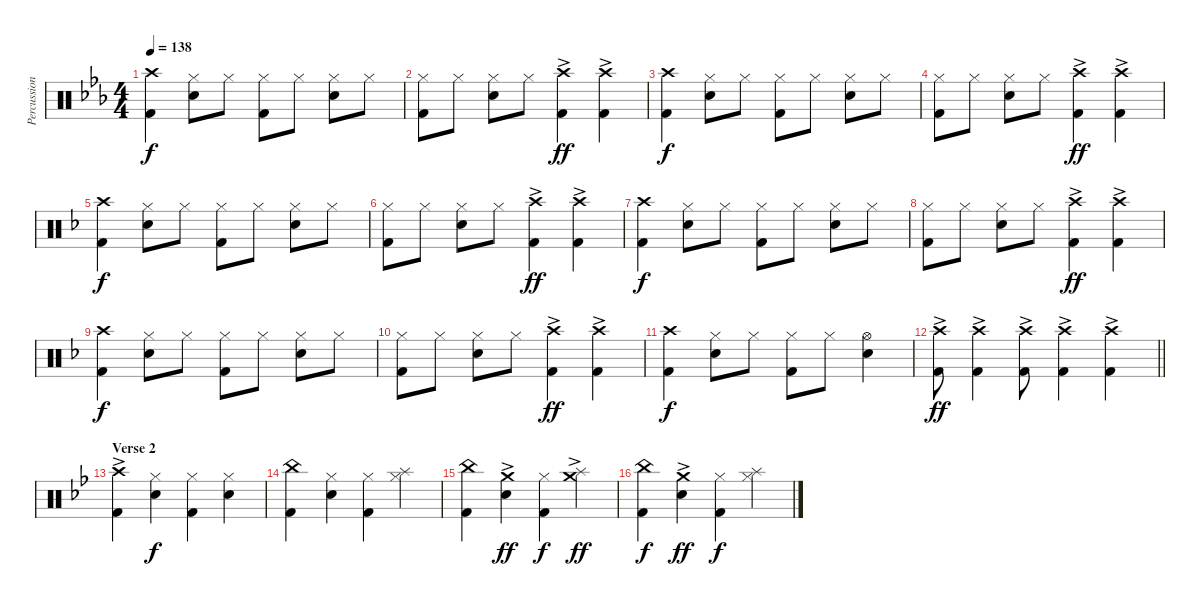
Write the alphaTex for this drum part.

\track ("Percussion" "Percussion") {instrument percussion}
\staff {score}
\articulation defaults
\ts (4 4)
\tempo 138
\clef neutral
\ks eb
("Crash high (hit)" "Kick (hit) 2").4{dy f} ("Hi-Hat (closed)" "Snare (hit) 2").8 "Hi-Hat (closed)".8 ("Hi-Hat (closed)" "Kick (hit) 2").8 "Hi-Hat (closed)".8 ("Hi-Hat (closed)" "Snare (hit) 2").8 "Hi-Hat (closed)".8 |
("Hi-Hat (closed)" "Kick (hit) 2").8 "Hi-Hat (closed)".8 ("Hi-Hat (closed)" "Snare (hit) 2").8 "Hi-Hat (closed)".8 ("Crash high (hit)"{ac} "Kick (hit) 2").4{dy ff} ("Crash high (hit)" "Kick (hit) 2"{ac}).4 |
("Crash high (hit)" "Kick (hit) 2").4{dy f} ("Hi-Hat (closed)" "Snare (hit) 2").8 "Hi-Hat (closed)".8 ("Hi-Hat (closed)" "Kick (hit) 2").8 "Hi-Hat (closed)".8 ("Hi-Hat (closed)" "Snare (hit) 2").8 "Hi-Hat (closed)".8 |
("Hi-Hat (closed)" "Kick (hit) 2").8 "Hi-Hat (closed)".8 ("Hi-Hat (closed)" "Snare (hit) 2").8 "Hi-Hat (closed)".8 ("Crash high (hit)"{ac} "Kick (hit) 2").4{dy ff} ("Crash high (hit)" "Kick (hit) 2"{ac}).4 |
\ks f
("Crash high (hit)" "Kick (hit) 2").4{dy f} ("Hi-Hat (closed)" "Snare (hit) 2").8 "Hi-Hat (closed)".8 ("Hi-Hat (closed)" "Kick (hit) 2").8 "Hi-Hat (closed)".8 ("Hi-Hat (closed)" "Snare (hit) 2").8 "Hi-Hat (closed)".8 |
("Hi-Hat (closed)" "Kick (hit) 2").8 "Hi-Hat (closed)".8 ("Hi-Hat (closed)" "Snare (hit) 2").8 "Hi-Hat (closed)".8 ("Crash high (hit)"{ac} "Kick (hit) 2").4{dy ff} ("Crash high (hit)" "Kick (hit) 2"{ac}).4 |
("Crash high (hit)" "Kick (hit) 2").4{dy f} ("Hi-Hat (closed)" "Snare (hit) 2").8 "Hi-Hat (closed)".8 ("Hi-Hat (closed)" "Kick (hit) 2").8 "Hi-Hat (closed)".8 ("Hi-Hat (closed)" "Snare (hit) 2").8 "Hi-Hat (closed)".8 |
("Hi-Hat (closed)" "Kick (hit) 2").8 "Hi-Hat (closed)".8 ("Hi-Hat (closed)" "Snare (hit) 2").8 "Hi-Hat (closed)".8 ("Crash high (hit)"{ac} "Kick (hit) 2").4{dy ff} ("Crash high (hit)" "Kick (hit) 2"{ac}).4 |
("Crash high (hit)" "Kick (hit) 2").4{dy f} ("Hi-Hat (closed)" "Snare (hit) 2").8 "Hi-Hat (closed)".8 ("Hi-Hat (closed)" "Kick (hit) 2").8 "Hi-Hat (closed)".8 ("Hi-Hat (closed)" "Snare (hit) 2").8 "Hi-Hat (closed)".8 |
("Hi-Hat (closed)" "Kick (hit) 2").8 "Hi-Hat (closed)".8 ("Hi-Hat (closed)" "Snare (hit) 2").8 "Hi-Hat (closed)".8 ("Crash high (hit)"{ac} "Kick (hit) 2").4{dy ff} ("Crash high (hit)" "Kick (hit) 2"{ac}).4 |
("Crash high (hit)" "Kick (hit) 2").4{dy f} ("Hi-Hat (closed)" "Snare (hit) 2").8 "Hi-Hat (closed)".8 ("Hi-Hat (closed)" "Kick (hit) 2").8 "Hi-Hat (closed)".8 ("Hi-Hat (open)" "Snare (hit) 2").4 |
\barLineRight lightlight
("Crash high (hit)"{ac} "Kick (hit) 2"{ac}).8{dy ff} ("Crash high (hit)"{ac} "Kick (hit) 2"{ac}).4 ("Crash high (hit)"{ac} "Kick (hit) 2"{ac}).8 ("Crash high (hit)"{ac} "Kick (hit) 2").4 ("Crash high (hit)" "Kick (hit) 2"{ac}).4 |
\section ("" "Verse 2")
\ks bb
("Crash high (hit)"{ac} "Kick (hit) 2").4 ("Hi-Hat (closed)" "Snare (hit) 2").4{dy f} ("Hi-Hat (closed)" "Kick (hit) 2").4 ("Hi-Hat (closed)" "Snare (hit) 2").4 |
("China (hit)" "Kick (hit) 2").4 ("Hi-Hat (closed)" "Snare (hit) 2").4 ("Hi-Hat (closed)" "Kick (hit) 2").4 ("Hi-Hat (closed)" "Splash (hit)").4 |
("China (hit)" "Kick (hit) 2").4 ("Crash medium (hit)"{ac} "Snare (hit) 2").4{dy ff} ("Hi-Hat (closed)" "Kick (hit) 2").4{dy f} ("Crash medium (hit)" "Splash (hit)"{ac}).4{dy ff} |
("China (hit)" "Kick (hit) 2").4{dy f} ("Crash medium (hit)"{ac} "Snare (hit) 2").4{dy ff} ("Hi-Hat (closed)" "Kick (hit) 2").4{dy f} ("Hi-Hat (closed)" "Splash (hit)").4
